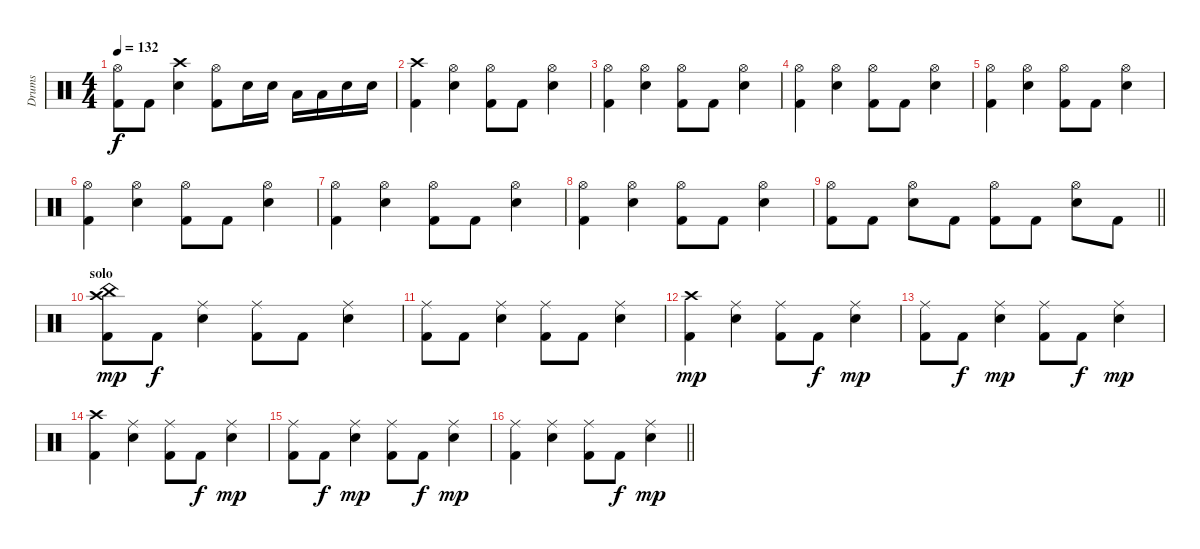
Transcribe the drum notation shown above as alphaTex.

\track ("Drums" "Drums") {instrument percussion}
\staff {score}
\articulation defaults
\ts (4 4)
\tempo 132
\clef neutral
\ks c
("Hi-Hat (open)" "Kick (hit) 2").8{dy f} "Kick (hit) 2".8 ("Crash high (hit)" "Electric Snare (hit)").4 ("Hi-Hat (open)" "Kick (hit) 2").8 "Electric Snare (hit)".16 "Electric Snare (hit)".16 "Low Tom (hit)".16 "Low Tom (hit)".16 "Electric Snare (hit)".16 "Electric Snare (hit)".16 |
("Crash high (hit)" "Kick (hit) 2").4 ("Hi-Hat (open)" "Electric Snare (hit)").4 ("Hi-Hat (open)" "Kick (hit) 2").8 "Kick (hit) 2".8 ("Hi-Hat (open)" "Electric Snare (hit)").4 |
("Hi-Hat (open)" "Kick (hit) 2").4 ("Hi-Hat (open)" "Electric Snare (hit)").4 ("Hi-Hat (open)" "Kick (hit) 2").8 "Kick (hit) 2".8 ("Hi-Hat (open)" "Electric Snare (hit)").4 |
("Hi-Hat (open)" "Kick (hit) 2").4 ("Hi-Hat (open)" "Electric Snare (hit)").4 ("Hi-Hat (open)" "Kick (hit) 2").8 "Kick (hit) 2".8 ("Hi-Hat (open)" "Electric Snare (hit)").4 |
("Hi-Hat (open)" "Kick (hit) 2").4 ("Hi-Hat (open)" "Electric Snare (hit)").4 ("Hi-Hat (open)" "Kick (hit) 2").8 "Kick (hit) 2".8 ("Hi-Hat (open)" "Electric Snare (hit)").4 |
("Hi-Hat (open)" "Kick (hit) 2").4 ("Hi-Hat (open)" "Electric Snare (hit)").4 ("Hi-Hat (open)" "Kick (hit) 2").8 "Kick (hit) 2".8 ("Hi-Hat (open)" "Electric Snare (hit)").4 |
("Hi-Hat (open)" "Kick (hit) 2").4 ("Hi-Hat (open)" "Electric Snare (hit)").4 ("Hi-Hat (open)" "Kick (hit) 2").8 "Kick (hit) 2".8 ("Hi-Hat (open)" "Electric Snare (hit)").4 |
("Hi-Hat (open)" "Kick (hit) 2").4 ("Hi-Hat (open)" "Electric Snare (hit)").4 ("Hi-Hat (open)" "Kick (hit) 2").8 "Kick (hit) 2".8 ("Hi-Hat (open)" "Electric Snare (hit)").4 |
\barLineRight lightlight
("Hi-Hat (open)" "Kick (hit) 2").8 "Kick (hit) 2".8 ("Hi-Hat (open)" "Electric Snare (hit)").8 "Kick (hit) 2".8 ("Hi-Hat (open)" "Kick (hit) 2").8 "Kick (hit) 2".8 ("Hi-Hat (open)" "Electric Snare (hit)").8 "Kick (hit) 2".8 |
\section ("" "solo")
("Crash high (hit)" "China (hit)" "Kick (hit) 2").8{dy mp} "Kick (hit) 2".8{dy f} ("Ride (middle)" "Electric Snare (hit)").4 ("Ride (middle)" "Kick (hit) 2").8 "Kick (hit) 2".8 ("Ride (middle)" "Electric Snare (hit)").4 |
("Ride (middle)" "Kick (hit) 2").8 "Kick (hit) 2".8 ("Ride (middle)" "Electric Snare (hit)").4 ("Ride (middle)" "Kick (hit) 2").8 "Kick (hit) 2".8 ("Ride (middle)" "Electric Snare (hit)").4 |
("Crash high (hit)" "Kick (hit) 2").4{dy mp} ("Ride (middle)" "Electric Snare (hit)").4 ("Ride (middle)" "Kick (hit) 2").8 "Kick (hit) 2".8{dy f} ("Ride (middle)" "Electric Snare (hit)").4{dy mp} |
("Ride (middle)" "Kick (hit) 2").8 "Kick (hit) 2".8{dy f} ("Ride (middle)" "Electric Snare (hit)").4{dy mp} ("Ride (middle)" "Kick (hit) 2").8 "Kick (hit) 2".8{dy f} ("Ride (middle)" "Electric Snare (hit)").4{dy mp} |
("Crash high (hit)" "Kick (hit) 2").4 ("Ride (middle)" "Electric Snare (hit)").4 ("Ride (middle)" "Kick (hit) 2").8 "Kick (hit) 2".8{dy f} ("Ride (middle)" "Electric Snare (hit)").4{dy mp} |
("Ride (middle)" "Kick (hit) 2").8 "Kick (hit) 2".8{dy f} ("Ride (middle)" "Electric Snare (hit)").4{dy mp} ("Ride (middle)" "Kick (hit) 2").8 "Kick (hit) 2".8{dy f} ("Ride (middle)" "Electric Snare (hit)").4{dy mp} |
\barLineRight lightlight
("Ride (middle)" "Kick (hit) 2").4 ("Ride (middle)" "Electric Snare (hit)").4 ("Ride (middle)" "Kick (hit) 2").8 "Kick (hit) 2".8{dy f} ("Ride (middle)" "Electric Snare (hit)").4{dy mp}
